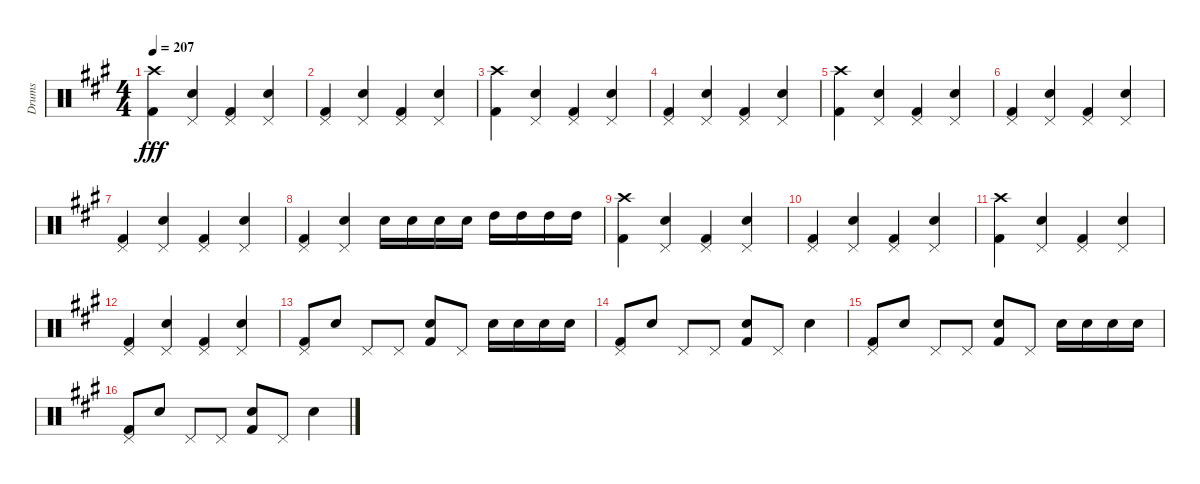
\track ("Drums" "Drums") {instrument percussion}
\staff {score}
\articulation defaults
\ts (4 4)
\tempo 207
\clef neutral
\ks a
("Crash high (hit)" "Kick (hit) 2").4{dy fff} ("Pedal Hi-Hat (hit)" "Snare (hit) 2").4 ("Pedal Hi-Hat (hit)" "Kick (hit) 2").4 ("Pedal Hi-Hat (hit)" "Snare (hit) 2").4 |
("Pedal Hi-Hat (hit)" "Kick (hit) 2").4 ("Pedal Hi-Hat (hit)" "Snare (hit) 2").4 ("Pedal Hi-Hat (hit)" "Kick (hit) 2").4 ("Pedal Hi-Hat (hit)" "Snare (hit) 2").4 |
("Crash high (hit)" "Kick (hit) 2").4 ("Pedal Hi-Hat (hit)" "Snare (hit) 2").4 ("Pedal Hi-Hat (hit)" "Kick (hit) 2").4 ("Pedal Hi-Hat (hit)" "Snare (hit) 2").4 |
("Pedal Hi-Hat (hit)" "Kick (hit) 2").4 ("Pedal Hi-Hat (hit)" "Snare (hit) 2").4 ("Pedal Hi-Hat (hit)" "Kick (hit) 2").4 ("Pedal Hi-Hat (hit)" "Snare (hit) 2").4 |
("Crash high (hit)" "Kick (hit) 2").4 ("Pedal Hi-Hat (hit)" "Snare (hit) 2").4 ("Pedal Hi-Hat (hit)" "Kick (hit) 2").4 ("Pedal Hi-Hat (hit)" "Snare (hit) 2").4 |
("Pedal Hi-Hat (hit)" "Kick (hit) 2").4 ("Pedal Hi-Hat (hit)" "Snare (hit) 2").4 ("Pedal Hi-Hat (hit)" "Kick (hit) 2").4 ("Pedal Hi-Hat (hit)" "Snare (hit) 2").4 |
("Pedal Hi-Hat (hit)" "Kick (hit) 2").4 ("Pedal Hi-Hat (hit)" "Snare (hit) 2").4 ("Pedal Hi-Hat (hit)" "Kick (hit) 2").4 ("Pedal Hi-Hat (hit)" "Snare (hit) 2").4 |
("Pedal Hi-Hat (hit)" "Kick (hit) 2").4 ("Pedal Hi-Hat (hit)" "Snare (hit) 2").4 "Snare (hit) 2".16 "Snare (hit) 2".16 "Snare (hit) 2".16 "Snare (hit) 2".16 "High Tom (hit)".16 "High Tom (hit)".16 "High Tom (hit)".16 "High Tom (hit)".16 |
("Crash high (hit)" "Kick (hit) 2").4 ("Pedal Hi-Hat (hit)" "Snare (hit) 2").4 ("Pedal Hi-Hat (hit)" "Kick (hit) 2").4 ("Pedal Hi-Hat (hit)" "Snare (hit) 2").4 |
("Pedal Hi-Hat (hit)" "Kick (hit) 2").4 ("Pedal Hi-Hat (hit)" "Snare (hit) 2").4 ("Pedal Hi-Hat (hit)" "Kick (hit) 2").4 ("Pedal Hi-Hat (hit)" "Snare (hit) 2").4 |
("Crash high (hit)" "Kick (hit) 2").4 ("Pedal Hi-Hat (hit)" "Snare (hit) 2").4 ("Pedal Hi-Hat (hit)" "Kick (hit) 2").4 ("Pedal Hi-Hat (hit)" "Snare (hit) 2").4 |
("Pedal Hi-Hat (hit)" "Kick (hit) 2").4 ("Pedal Hi-Hat (hit)" "Snare (hit) 2").4 ("Pedal Hi-Hat (hit)" "Kick (hit) 2").4 ("Pedal Hi-Hat (hit)" "Snare (hit) 2").4 |
("Pedal Hi-Hat (hit)" "Kick (hit) 2").8 "Snare (hit) 2".8 "Pedal Hi-Hat (hit)".8 "Pedal Hi-Hat (hit)".8 ("Snare (hit) 2" "Kick (hit) 2").8 "Pedal Hi-Hat (hit)".8 "Snare (hit) 2".16 "Snare (hit) 2".16 "Snare (hit) 2".16 "Snare (hit) 2".16 |
("Pedal Hi-Hat (hit)" "Kick (hit) 2").8 "Snare (hit) 2".8 "Pedal Hi-Hat (hit)".8 "Pedal Hi-Hat (hit)".8 ("Snare (hit) 2" "Kick (hit) 2").8 "Pedal Hi-Hat (hit)".8 "Snare (hit) 2".4 |
("Pedal Hi-Hat (hit)" "Kick (hit) 2").8 "Snare (hit) 2".8 "Pedal Hi-Hat (hit)".8 "Pedal Hi-Hat (hit)".8 ("Snare (hit) 2" "Kick (hit) 2").8 "Pedal Hi-Hat (hit)".8 "Snare (hit) 2".16 "Snare (hit) 2".16 "Snare (hit) 2".16 "Snare (hit) 2".16 |
("Pedal Hi-Hat (hit)" "Kick (hit) 2").8 "Snare (hit) 2".8 "Pedal Hi-Hat (hit)".8 "Pedal Hi-Hat (hit)".8 ("Snare (hit) 2" "Kick (hit) 2").8 "Pedal Hi-Hat (hit)".8 "Snare (hit) 2".4
